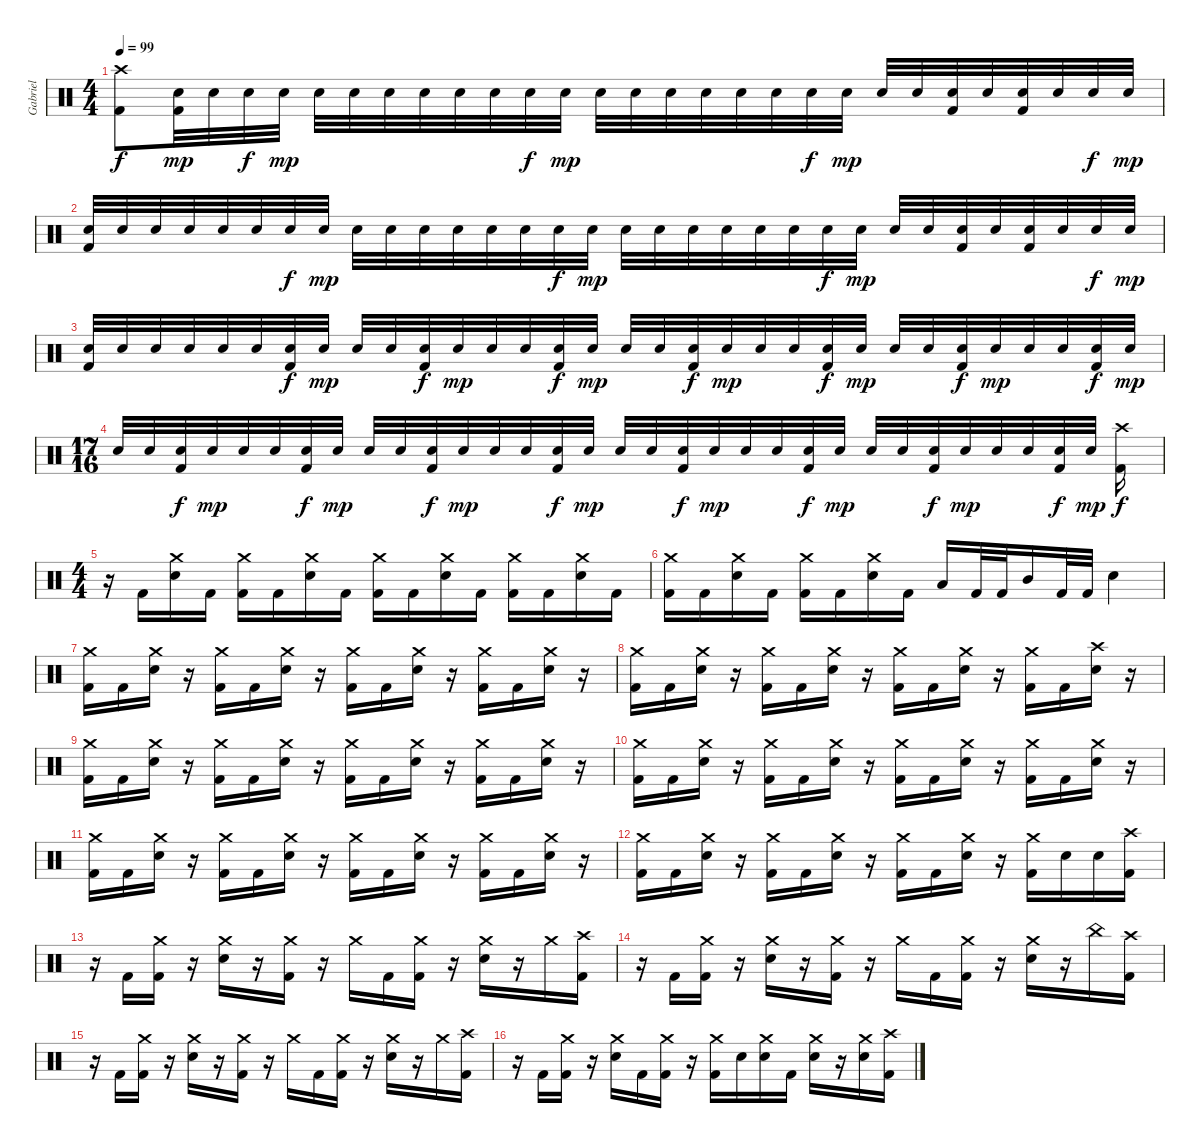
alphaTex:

\track ("Gabriel" "Gabriel") {instrument percussion}
\staff {score}
\articulation defaults
\ts (4 4)
\tempo 99
\clef neutral
\ks c
("Crash high (hit)" "Kick (hit) 2").8{dy f} ("Electric Snare (hit)" "Kick (hit) 2").32{dy mp} "Electric Snare (hit)".32 "Electric Snare (hit)".32{dy f} "Electric Snare (hit)".32{dy mp} "Electric Snare (hit)".32 "Electric Snare (hit)".32 "Electric Snare (hit)".32 "Electric Snare (hit)".32 "Electric Snare (hit)".32 "Electric Snare (hit)".32 "Electric Snare (hit)".32{dy f} "Electric Snare (hit)".32{dy mp} "Electric Snare (hit)".32 "Electric Snare (hit)".32 "Electric Snare (hit)".32 "Electric Snare (hit)".32 "Electric Snare (hit)".32 "Electric Snare (hit)".32 "Electric Snare (hit)".32{dy f} "Electric Snare (hit)".32{dy mp} "Electric Snare (hit)".32 "Electric Snare (hit)".32 ("Electric Snare (hit)" "Kick (hit) 2").32 "Electric Snare (hit)".32 ("Electric Snare (hit)" "Kick (hit) 2").32 "Electric Snare (hit)".32 "Electric Snare (hit)".32{dy f} "Electric Snare (hit)".32{dy mp} |
("Electric Snare (hit)" "Kick (hit) 2").32 "Electric Snare (hit)".32 "Electric Snare (hit)".32 "Electric Snare (hit)".32 "Electric Snare (hit)".32 "Electric Snare (hit)".32 "Electric Snare (hit)".32{dy f} "Electric Snare (hit)".32{dy mp} "Electric Snare (hit)".32 "Electric Snare (hit)".32 "Electric Snare (hit)".32 "Electric Snare (hit)".32 "Electric Snare (hit)".32 "Electric Snare (hit)".32 "Electric Snare (hit)".32{dy f} "Electric Snare (hit)".32{dy mp} "Electric Snare (hit)".32 "Electric Snare (hit)".32 "Electric Snare (hit)".32 "Electric Snare (hit)".32 "Electric Snare (hit)".32 "Electric Snare (hit)".32 "Electric Snare (hit)".32{dy f} "Electric Snare (hit)".32{dy mp} "Electric Snare (hit)".32 "Electric Snare (hit)".32 ("Electric Snare (hit)" "Kick (hit) 2").32 "Electric Snare (hit)".32 ("Electric Snare (hit)" "Kick (hit) 2").32 "Electric Snare (hit)".32 "Electric Snare (hit)".32{dy f} "Electric Snare (hit)".32{dy mp} |
("Electric Snare (hit)" "Kick (hit) 2").32 "Electric Snare (hit)".32 "Electric Snare (hit)".32 "Electric Snare (hit)".32 "Electric Snare (hit)".32 "Electric Snare (hit)".32 ("Electric Snare (hit)" "Kick (hit) 2").32{dy f} "Electric Snare (hit)".32{dy mp} "Electric Snare (hit)".32 "Electric Snare (hit)".32 ("Electric Snare (hit)" "Kick (hit) 2").32{dy f} "Electric Snare (hit)".32{dy mp} "Electric Snare (hit)".32 "Electric Snare (hit)".32 ("Electric Snare (hit)" "Kick (hit) 2").32{dy f} "Electric Snare (hit)".32{dy mp} "Electric Snare (hit)".32 "Electric Snare (hit)".32 ("Electric Snare (hit)" "Kick (hit) 2").32{dy f} "Electric Snare (hit)".32{dy mp} "Electric Snare (hit)".32 "Electric Snare (hit)".32 ("Electric Snare (hit)" "Kick (hit) 2").32{dy f} "Electric Snare (hit)".32{dy mp} "Electric Snare (hit)".32 "Electric Snare (hit)".32 ("Electric Snare (hit)" "Kick (hit) 2").32{dy f} "Electric Snare (hit)".32{dy mp} "Electric Snare (hit)".32 "Electric Snare (hit)".32 ("Electric Snare (hit)" "Kick (hit) 2").32{dy f} "Electric Snare (hit)".32{dy mp} |
\ts (17 16)
"Electric Snare (hit)".32 "Electric Snare (hit)".32 ("Electric Snare (hit)" "Kick (hit) 2").32{dy f} "Electric Snare (hit)".32{dy mp} "Electric Snare (hit)".32 "Electric Snare (hit)".32 ("Electric Snare (hit)" "Kick (hit) 2").32{dy f} "Electric Snare (hit)".32{dy mp} "Electric Snare (hit)".32 "Electric Snare (hit)".32 ("Electric Snare (hit)" "Kick (hit) 2").32{dy f} "Electric Snare (hit)".32{dy mp} "Electric Snare (hit)".32 "Electric Snare (hit)".32 ("Electric Snare (hit)" "Kick (hit) 2").32{dy f} "Electric Snare (hit)".32{dy mp} "Electric Snare (hit)".32 "Electric Snare (hit)".32 ("Electric Snare (hit)" "Kick (hit) 2").32{dy f} "Electric Snare (hit)".32{dy mp} "Electric Snare (hit)".32 "Electric Snare (hit)".32 ("Electric Snare (hit)" "Kick (hit) 2").32{dy f} "Electric Snare (hit)".32{dy mp} "Electric Snare (hit)".32 "Electric Snare (hit)".32 ("Electric Snare (hit)" "Kick (hit) 2").32{dy f} "Electric Snare (hit)".32{dy mp} "Electric Snare (hit)".32 "Electric Snare (hit)".32 ("Electric Snare (hit)" "Kick (hit) 2").32{dy f} "Electric Snare (hit)".32{dy mp} ("Crash high (hit)" "Kick (hit) 2").16{dy f} |
\ts (4 4)
r.16 "Kick (hit) 2".16 ("Crash medium (hit)" "Electric Snare (hit)").16 "Kick (hit) 2".16 ("Crash medium (hit)" "Kick (hit) 2").16 "Kick (hit) 2".16 ("Crash medium (hit)" "Electric Snare (hit)").16 "Kick (hit) 2".16 ("Crash medium (hit)" "Kick (hit) 2").16 "Kick (hit) 2".16 ("Crash medium (hit)" "Electric Snare (hit)").16 "Kick (hit) 2".16 ("Crash medium (hit)" "Kick (hit) 2").16 "Kick (hit) 2".16 ("Crash medium (hit)" "Electric Snare (hit)").16 "Kick (hit) 2".16 |
("Crash medium (hit)" "Kick (hit) 2").16 "Kick (hit) 2".16 ("Crash medium (hit)" "Electric Snare (hit)").16 "Kick (hit) 2".16 ("Crash medium (hit)" "Kick (hit) 2").16 "Kick (hit) 2".16 ("Crash medium (hit)" "Electric Snare (hit)").16 "Kick (hit) 2".16 "Low Tom (hit)".16 "Kick (hit) 2".32 "Kick (hit) 2".32 "Mid Tom (hit)".16 "Kick (hit) 2".32 "Kick (hit) 2".32 "Electric Snare (hit)".4 |
("Crash medium (hit)" "Kick (hit) 2").16 "Kick (hit) 2".16 ("Crash medium (hit)" "Electric Snare (hit)").16 r.16 ("Crash medium (hit)" "Kick (hit) 2").16 "Kick (hit) 2".16 ("Crash medium (hit)" "Electric Snare (hit)").16 r.16 ("Crash medium (hit)" "Kick (hit) 2").16 "Kick (hit) 2".16 ("Crash medium (hit)" "Electric Snare (hit)").16 r.16 ("Crash medium (hit)" "Kick (hit) 2").16 "Kick (hit) 2".16 ("Crash medium (hit)" "Electric Snare (hit)").16 r.16 |
("Crash medium (hit)" "Kick (hit) 2").16 "Kick (hit) 2".16 ("Crash medium (hit)" "Electric Snare (hit)").16 r.16 ("Crash medium (hit)" "Kick (hit) 2").16 "Kick (hit) 2".16 ("Crash medium (hit)" "Electric Snare (hit)").16 r.16 ("Crash medium (hit)" "Kick (hit) 2").16 "Kick (hit) 2".16 ("Crash medium (hit)" "Electric Snare (hit)").16 r.16 ("Crash medium (hit)" "Kick (hit) 2").16 "Kick (hit) 2".16 ("Crash high (hit)" "Electric Snare (hit)").16 r.16 |
("Crash medium (hit)" "Kick (hit) 2").16 "Kick (hit) 2".16 ("Crash medium (hit)" "Electric Snare (hit)").16 r.16 ("Crash medium (hit)" "Kick (hit) 2").16 "Kick (hit) 2".16 ("Crash medium (hit)" "Electric Snare (hit)").16 r.16 ("Crash medium (hit)" "Kick (hit) 2").16 "Kick (hit) 2".16 ("Crash medium (hit)" "Electric Snare (hit)").16 r.16 ("Crash medium (hit)" "Kick (hit) 2").16 "Kick (hit) 2".16 ("Crash medium (hit)" "Electric Snare (hit)").16 r.16 |
("Crash medium (hit)" "Kick (hit) 2").16 "Kick (hit) 2".16 ("Crash medium (hit)" "Electric Snare (hit)").16 r.16 ("Crash medium (hit)" "Kick (hit) 2").16 "Kick (hit) 2".16 ("Crash medium (hit)" "Electric Snare (hit)").16 r.16 ("Crash medium (hit)" "Kick (hit) 2").16 "Kick (hit) 2".16 ("Crash medium (hit)" "Electric Snare (hit)").16 r.16 ("Crash medium (hit)" "Kick (hit) 2").16 "Kick (hit) 2".16 ("Crash medium (hit)" "Electric Snare (hit)").16 r.16 |
("Crash medium (hit)" "Kick (hit) 2").16 "Kick (hit) 2".16 ("Crash medium (hit)" "Electric Snare (hit)").16 r.16 ("Crash medium (hit)" "Kick (hit) 2").16 "Kick (hit) 2".16 ("Crash medium (hit)" "Electric Snare (hit)").16 r.16 ("Crash medium (hit)" "Kick (hit) 2").16 "Kick (hit) 2".16 ("Crash medium (hit)" "Electric Snare (hit)").16 r.16 ("Crash medium (hit)" "Kick (hit) 2").16 "Kick (hit) 2".16 ("Crash medium (hit)" "Electric Snare (hit)").16 r.16 |
("Crash medium (hit)" "Kick (hit) 2").16 "Kick (hit) 2".16 ("Crash medium (hit)" "Electric Snare (hit)").16 r.16 ("Crash medium (hit)" "Kick (hit) 2").16 "Kick (hit) 2".16 ("Crash medium (hit)" "Electric Snare (hit)").16 r.16 ("Crash medium (hit)" "Kick (hit) 2").16 "Kick (hit) 2".16 ("Crash medium (hit)" "Electric Snare (hit)").16 r.16 ("Crash medium (hit)" "Kick (hit) 2").16 "Electric Snare (hit)".16 "Electric Snare (hit)".16 ("Crash high (hit)" "Kick (hit) 2").16 |
r.16 "Kick (hit) 2".16 ("Crash medium (hit)" "Kick (hit) 2").16 r.16 ("Crash medium (hit)" "Electric Snare (hit)").16 r.16 ("Crash medium (hit)" "Kick (hit) 2").16 r.16 "Crash medium (hit)".16 "Kick (hit) 2".16 ("Crash medium (hit)" "Kick (hit) 2").16 r.16 ("Crash medium (hit)" "Electric Snare (hit)").16 r.16 "Crash medium (hit)".16 ("Crash high (hit)" "Kick (hit) 2").16 |
r.16 "Kick (hit) 2".16 ("Crash medium (hit)" "Kick (hit) 2").16 r.16 ("Crash medium (hit)" "Electric Snare (hit)").16 r.16 ("Crash medium (hit)" "Kick (hit) 2").16 r.16 "Crash medium (hit)".16 "Kick (hit) 2".16 ("Crash medium (hit)" "Kick (hit) 2").16 r.16 ("Crash medium (hit)" "Electric Snare (hit)").16 r.16 "China (hit)".16 ("Crash high (hit)" "Kick (hit) 2").16 |
r.16 "Kick (hit) 2".16 ("Crash medium (hit)" "Kick (hit) 2").16 r.16 ("Crash medium (hit)" "Electric Snare (hit)").16 r.16 ("Crash medium (hit)" "Kick (hit) 2").16 r.16 "Crash medium (hit)".16 "Kick (hit) 2".16 ("Crash medium (hit)" "Kick (hit) 2").16 r.16 ("Crash medium (hit)" "Electric Snare (hit)").16 r.16 "Crash medium (hit)".16 ("Crash high (hit)" "Kick (hit) 2").16 |
r.16 "Kick (hit) 2".16 ("Crash medium (hit)" "Kick (hit) 2").16 r.16 ("Crash medium (hit)" "Electric Snare (hit)").16 "Kick (hit) 2".16 ("Crash medium (hit)" "Kick (hit) 2").16 r.16 ("Crash medium (hit)" "Kick (hit) 2").16 "Electric Snare (hit)".16 ("Crash medium (hit)" "Electric Snare (hit)").16 "Kick (hit) 2".16 ("Crash medium (hit)" "Electric Snare (hit)").16 r.16 ("Crash medium (hit)" "Electric Snare (hit)").16 ("Crash high (hit)" "Kick (hit) 2").16
